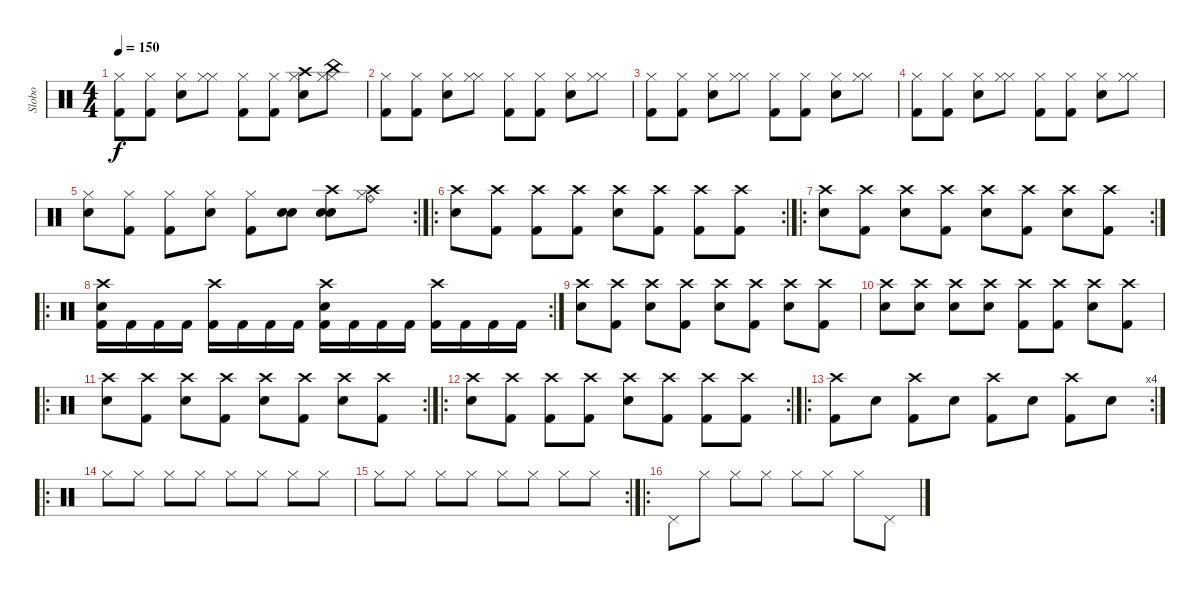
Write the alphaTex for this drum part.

\track ("Slobo" "Slobo") {instrument percussion}
\staff {score}
\articulation defaults
\ts (4 4)
\tempo 150
\clef neutral
\ks c
("Hi-Hat (closed)" "Kick (hit) 2").8{dy f} ("Hi-Hat (closed)" "Kick (hit) 2").8 ("Hi-Hat (closed)" "Snare (hit) 2").8 ("Hi-Hat (closed)" "Hi-Hat (closed)").8 ("Hi-Hat (closed)" "Kick (hit) 2").8 ("Hi-Hat (closed)" "Kick (hit) 2").8 ("Crash high (hit)" "Hi-Hat (closed)" "Snare (hit) 2").8 ("China (hit)" "Hi-Hat (closed)" "Hi-Hat (closed)").8 |
("Hi-Hat (closed)" "Kick (hit) 2").8 ("Hi-Hat (closed)" "Kick (hit) 2").8 ("Hi-Hat (closed)" "Snare (hit) 2").8 ("Hi-Hat (closed)" "Hi-Hat (closed)").8 ("Hi-Hat (closed)" "Kick (hit) 2").8 ("Hi-Hat (closed)" "Kick (hit) 2").8 ("Hi-Hat (closed)" "Snare (hit) 2").8 ("Hi-Hat (closed)" "Hi-Hat (closed)").8 |
("Hi-Hat (closed)" "Kick (hit) 2").8 ("Hi-Hat (closed)" "Kick (hit) 2").8 ("Hi-Hat (closed)" "Snare (hit) 2").8 ("Hi-Hat (closed)" "Hi-Hat (closed)").8 ("Hi-Hat (closed)" "Kick (hit) 2").8 ("Hi-Hat (closed)" "Kick (hit) 2").8 ("Hi-Hat (closed)" "Snare (hit) 2").8 ("Hi-Hat (closed)" "Hi-Hat (closed)").8 |
("Hi-Hat (closed)" "Kick (hit) 2").8 ("Hi-Hat (closed)" "Kick (hit) 2").8 ("Hi-Hat (closed)" "Snare (hit) 2").8 ("Hi-Hat (closed)" "Hi-Hat (closed)").8 ("Hi-Hat (closed)" "Kick (hit) 2").8 ("Hi-Hat (closed)" "Kick (hit) 2").8 ("Hi-Hat (closed)" "Snare (hit) 2").8 ("Hi-Hat (closed)" "Hi-Hat (closed)").8 |
\rc 2
("Hi-Hat (closed)" "Snare (hit) 2").8 ("Hi-Hat (closed)" "Kick (hit) 2").8 ("Hi-Hat (closed)" "Kick (hit) 2").8 ("Hi-Hat (closed)" "Snare (hit) 2").8 ("Hi-Hat (closed)" "Kick (hit) 2").8 ("Snare (hit) 2" "Snare (hit) 2").8 ("Crash high (hit)" "Snare (hit) 2" "Snare (hit) 2").8 ("Crash high (hit)" "Ride (bell)" "Hi-Hat (closed)").8 |
\ro
\rc 2
("Crash high (hit)" "Snare (hit) 2").8 ("Crash high (hit)" "Kick (hit) 2").8 ("Crash high (hit)" "Kick (hit) 2").8 ("Crash high (hit)" "Kick (hit) 2").8 ("Crash high (hit)" "Snare (hit) 2").8 ("Crash high (hit)" "Kick (hit) 2").8 ("Crash high (hit)" "Kick (hit) 2").8 ("Crash high (hit)" "Kick (hit) 2").8 |
\ro
\rc 2
("Crash high (hit)" "Snare (hit) 2").8 ("Crash high (hit)" "Kick (hit) 2").8 ("Crash high (hit)" "Snare (hit) 2").8 ("Crash high (hit)" "Kick (hit) 2").8 ("Crash high (hit)" "Snare (hit) 2").8 ("Crash high (hit)" "Kick (hit) 2").8 ("Crash high (hit)" "Snare (hit) 2").8 ("Crash high (hit)" "Kick (hit) 2").8 |
\ro
\rc 2
("Crash high (hit)" "Snare (hit) 2" "Kick (hit) 2").16 "Kick (hit) 2".16 "Kick (hit) 2".16 "Kick (hit) 2".16 ("Crash high (hit)" "Kick (hit) 2").16 "Kick (hit) 2".16 "Kick (hit) 2".16 "Kick (hit) 2".16 ("Crash high (hit)" "Snare (hit) 2" "Kick (hit) 2").16 "Kick (hit) 2".16 "Kick (hit) 2".16 "Kick (hit) 2".16 ("Crash high (hit)" "Kick (hit) 2").16 "Kick (hit) 2".16 "Kick (hit) 2".16 "Kick (hit) 2".16 |
("Crash high (hit)" "Snare (hit) 2").8 ("Crash high (hit)" "Kick (hit) 2").8 ("Crash high (hit)" "Snare (hit) 2").8 ("Crash high (hit)" "Kick (hit) 2").8 ("Crash high (hit)" "Snare (hit) 2").8 ("Crash high (hit)" "Kick (hit) 2").8 ("Crash high (hit)" "Snare (hit) 2").8 ("Crash high (hit)" "Kick (hit) 2").8 |
("Crash high (hit)" "Snare (hit) 2").8 ("Crash high (hit)" "Snare (hit) 2").8 ("Crash high (hit)" "Snare (hit) 2").8 ("Crash high (hit)" "Snare (hit) 2").8 ("Crash high (hit)" "Kick (hit) 2").8 ("Crash high (hit)" "Kick (hit) 2").8 ("Crash high (hit)" "Snare (hit) 2").8 ("Crash high (hit)" "Kick (hit) 2").8 |
\ro
\rc 2
("Crash high (hit)" "Snare (hit) 2").8 ("Crash high (hit)" "Kick (hit) 2").8 ("Crash high (hit)" "Snare (hit) 2").8 ("Crash high (hit)" "Kick (hit) 2").8 ("Crash high (hit)" "Snare (hit) 2").8 ("Crash high (hit)" "Kick (hit) 2").8 ("Crash high (hit)" "Snare (hit) 2").8 ("Crash high (hit)" "Kick (hit) 2").8 |
\ro
\rc 2
("Crash high (hit)" "Snare (hit) 2").8 ("Crash high (hit)" "Kick (hit) 2").8 ("Crash high (hit)" "Kick (hit) 2").8 ("Crash high (hit)" "Kick (hit) 2").8 ("Crash high (hit)" "Snare (hit) 2").8 ("Crash high (hit)" "Kick (hit) 2").8 ("Crash high (hit)" "Kick (hit) 2").8 ("Crash high (hit)" "Kick (hit) 2").8 |
\ro
\rc 4
("Crash high (hit)" "Kick (hit) 2").8 "Snare (hit) 2".8 ("Crash high (hit)" "Kick (hit) 2").8 "Snare (hit) 2".8 ("Crash high (hit)" "Kick (hit) 2").8 "Snare (hit) 2".8 ("Crash high (hit)" "Kick (hit) 2").8 "Snare (hit) 2".8 |
\ro "Hi-Hat (closed)".8 "Hi-Hat (closed)".8 "Hi-Hat (closed)".8 "Hi-Hat (closed)".8 "Hi-Hat (closed)".8 "Hi-Hat (closed)".8 "Hi-Hat (closed)".8 "Hi-Hat (closed)".8
|
\rc 2 "Hi-Hat (closed)".8 "Hi-Hat (closed)".8 "Hi-Hat (closed)".8 "Hi-Hat (closed)".8 "Hi-Hat (closed)".8 "Hi-Hat (closed)".8 "Hi-Hat (closed)".8 "Hi-Hat (closed)".8
|
\ro "Pedal Hi-Hat (hit)".8 "Hi-Hat (closed)".8 "Hi-Hat (closed)".8 "Hi-Hat (closed)".8 "Hi-Hat (closed)".8 "Hi-Hat (closed)".8 "Hi-Hat (closed)".8 "Pedal Hi-Hat (hit)".8
